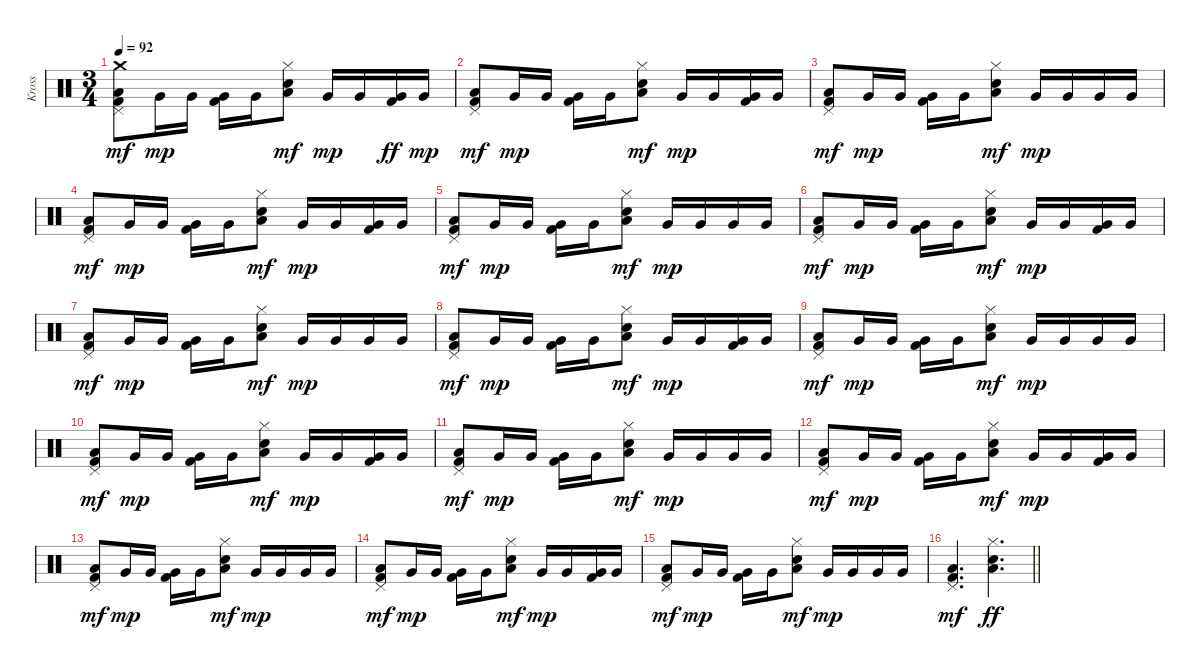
\track ("Kross" "Kross") {instrument percussion}
\staff {score}
\articulation defaults
\ts (3 4)
\tempo 92
\clef neutral
\ks c
("Crash medium (hit)" "Low Floor Tom (hit)" "Kick (hit) 2" "Pedal Hi-Hat (hit)").8{dy mf} "Very Low Tom (hit)".16{dy mp} "Very Low Tom (hit)".16 ("Very Low Tom (hit)" "Kick (hit) 2").16 "Very Low Tom (hit)".16 ("Low Floor Tom (hit)" "Snare (hit) 2" "Hi-Hat (closed)").8{dy mf} "Very Low Tom (hit)".16{dy mp} "Very Low Tom (hit)".16 ("Very Low Tom (hit)" "Kick (hit) 2").16{dy ff} "Very Low Tom (hit)".16{dy mp} |
("Low Floor Tom (hit)" "Kick (hit) 2" "Pedal Hi-Hat (hit)").8{dy mf} "Very Low Tom (hit)".16{dy mp} "Very Low Tom (hit)".16 ("Very Low Tom (hit)" "Kick (hit) 2").16 "Very Low Tom (hit)".16 ("Low Floor Tom (hit)" "Snare (hit) 2" "Hi-Hat (closed)").8{dy mf} "Very Low Tom (hit)".16{dy mp} "Very Low Tom (hit)".16 ("Very Low Tom (hit)" "Kick (hit) 2").16 "Very Low Tom (hit)".16 |
("Low Floor Tom (hit)" "Kick (hit) 2" "Pedal Hi-Hat (hit)").8{dy mf} "Very Low Tom (hit)".16{dy mp} "Very Low Tom (hit)".16 ("Very Low Tom (hit)" "Kick (hit) 2").16 "Very Low Tom (hit)".16 ("Low Floor Tom (hit)" "Snare (hit) 2" "Hi-Hat (closed)").8{dy mf} "Very Low Tom (hit)".16{dy mp} "Very Low Tom (hit)".16 "Very Low Tom (hit)".16 "Very Low Tom (hit)".16 |
("Low Floor Tom (hit)" "Kick (hit) 2" "Pedal Hi-Hat (hit)").8{dy mf} "Very Low Tom (hit)".16{dy mp} "Very Low Tom (hit)".16 ("Very Low Tom (hit)" "Kick (hit) 2").16 "Very Low Tom (hit)".16 ("Low Floor Tom (hit)" "Snare (hit) 2" "Hi-Hat (closed)").8{dy mf} "Very Low Tom (hit)".16{dy mp} "Very Low Tom (hit)".16 ("Very Low Tom (hit)" "Kick (hit) 2").16 "Very Low Tom (hit)".16 |
("Low Floor Tom (hit)" "Kick (hit) 2" "Pedal Hi-Hat (hit)").8{dy mf} "Very Low Tom (hit)".16{dy mp} "Very Low Tom (hit)".16 ("Very Low Tom (hit)" "Kick (hit) 2").16 "Very Low Tom (hit)".16 ("Low Floor Tom (hit)" "Snare (hit) 2" "Hi-Hat (closed)").8{dy mf} "Very Low Tom (hit)".16{dy mp} "Very Low Tom (hit)".16 "Very Low Tom (hit)".16 "Very Low Tom (hit)".16 |
("Low Floor Tom (hit)" "Kick (hit) 2" "Pedal Hi-Hat (hit)").8{dy mf} "Very Low Tom (hit)".16{dy mp} "Very Low Tom (hit)".16 ("Very Low Tom (hit)" "Kick (hit) 2").16 "Very Low Tom (hit)".16 ("Low Floor Tom (hit)" "Snare (hit) 2" "Hi-Hat (closed)").8{dy mf} "Very Low Tom (hit)".16{dy mp} "Very Low Tom (hit)".16 ("Very Low Tom (hit)" "Kick (hit) 2").16 "Very Low Tom (hit)".16 |
("Low Floor Tom (hit)" "Kick (hit) 2" "Pedal Hi-Hat (hit)").8{dy mf} "Very Low Tom (hit)".16{dy mp} "Very Low Tom (hit)".16 ("Very Low Tom (hit)" "Kick (hit) 2").16 "Very Low Tom (hit)".16 ("Low Floor Tom (hit)" "Snare (hit) 2" "Hi-Hat (closed)").8{dy mf} "Very Low Tom (hit)".16{dy mp} "Very Low Tom (hit)".16 "Very Low Tom (hit)".16 "Very Low Tom (hit)".16 |
("Low Floor Tom (hit)" "Kick (hit) 2" "Pedal Hi-Hat (hit)").8{dy mf} "Very Low Tom (hit)".16{dy mp} "Very Low Tom (hit)".16 ("Very Low Tom (hit)" "Kick (hit) 2").16 "Very Low Tom (hit)".16 ("Low Floor Tom (hit)" "Snare (hit) 2" "Hi-Hat (closed)").8{dy mf} "Very Low Tom (hit)".16{dy mp} "Very Low Tom (hit)".16 ("Very Low Tom (hit)" "Kick (hit) 2").16 "Very Low Tom (hit)".16 |
("Low Floor Tom (hit)" "Kick (hit) 2" "Pedal Hi-Hat (hit)").8{dy mf} "Very Low Tom (hit)".16{dy mp} "Very Low Tom (hit)".16 ("Very Low Tom (hit)" "Kick (hit) 2").16 "Very Low Tom (hit)".16 ("Low Floor Tom (hit)" "Snare (hit) 2" "Hi-Hat (closed)").8{dy mf} "Very Low Tom (hit)".16{dy mp} "Very Low Tom (hit)".16 "Very Low Tom (hit)".16 "Very Low Tom (hit)".16 |
("Low Floor Tom (hit)" "Kick (hit) 2" "Pedal Hi-Hat (hit)").8{dy mf} "Very Low Tom (hit)".16{dy mp} "Very Low Tom (hit)".16 ("Very Low Tom (hit)" "Kick (hit) 2").16 "Very Low Tom (hit)".16 ("Low Floor Tom (hit)" "Snare (hit) 2" "Hi-Hat (closed)").8{dy mf} "Very Low Tom (hit)".16{dy mp} "Very Low Tom (hit)".16 ("Very Low Tom (hit)" "Kick (hit) 2").16 "Very Low Tom (hit)".16 |
("Low Floor Tom (hit)" "Kick (hit) 2" "Pedal Hi-Hat (hit)").8{dy mf} "Very Low Tom (hit)".16{dy mp} "Very Low Tom (hit)".16 ("Very Low Tom (hit)" "Kick (hit) 2").16 "Very Low Tom (hit)".16 ("Low Floor Tom (hit)" "Snare (hit) 2" "Hi-Hat (closed)").8{dy mf} "Very Low Tom (hit)".16{dy mp} "Very Low Tom (hit)".16 "Very Low Tom (hit)".16 "Very Low Tom (hit)".16 |
("Low Floor Tom (hit)" "Kick (hit) 2" "Pedal Hi-Hat (hit)").8{dy mf} "Very Low Tom (hit)".16{dy mp} "Very Low Tom (hit)".16 ("Very Low Tom (hit)" "Kick (hit) 2").16 "Very Low Tom (hit)".16 ("Low Floor Tom (hit)" "Snare (hit) 2" "Hi-Hat (closed)").8{dy mf} "Very Low Tom (hit)".16{dy mp} "Very Low Tom (hit)".16 ("Very Low Tom (hit)" "Kick (hit) 2").16 "Very Low Tom (hit)".16 |
("Low Floor Tom (hit)" "Kick (hit) 2" "Pedal Hi-Hat (hit)").8{dy mf} "Very Low Tom (hit)".16{dy mp} "Very Low Tom (hit)".16 ("Very Low Tom (hit)" "Kick (hit) 2").16 "Very Low Tom (hit)".16 ("Low Floor Tom (hit)" "Snare (hit) 2" "Hi-Hat (closed)").8{dy mf} "Very Low Tom (hit)".16{dy mp} "Very Low Tom (hit)".16 "Very Low Tom (hit)".16 "Very Low Tom (hit)".16 |
("Low Floor Tom (hit)" "Kick (hit) 2" "Pedal Hi-Hat (hit)").8{dy mf} "Very Low Tom (hit)".16{dy mp} "Very Low Tom (hit)".16 ("Very Low Tom (hit)" "Kick (hit) 2").16 "Very Low Tom (hit)".16 ("Low Floor Tom (hit)" "Snare (hit) 2" "Hi-Hat (closed)").8{dy mf} "Very Low Tom (hit)".16{dy mp} "Very Low Tom (hit)".16 ("Very Low Tom (hit)" "Kick (hit) 2").16 "Very Low Tom (hit)".16 |
("Low Floor Tom (hit)" "Kick (hit) 2" "Pedal Hi-Hat (hit)").8{dy mf} "Very Low Tom (hit)".16{dy mp} "Very Low Tom (hit)".16 ("Very Low Tom (hit)" "Kick (hit) 2").16 "Very Low Tom (hit)".16 ("Low Floor Tom (hit)" "Snare (hit) 2" "Hi-Hat (closed)").8{dy mf} "Very Low Tom (hit)".16{dy mp} "Very Low Tom (hit)".16 "Very Low Tom (hit)".16 "Very Low Tom (hit)".16 |
\barLineRight lightlight
("Low Floor Tom (hit)" "Kick (hit) 2" "Pedal Hi-Hat (hit)").4{d dy mf} ("Low Floor Tom (hit)" "Snare (hit) 2" "Hi-Hat (closed)").4{d dy ff}
